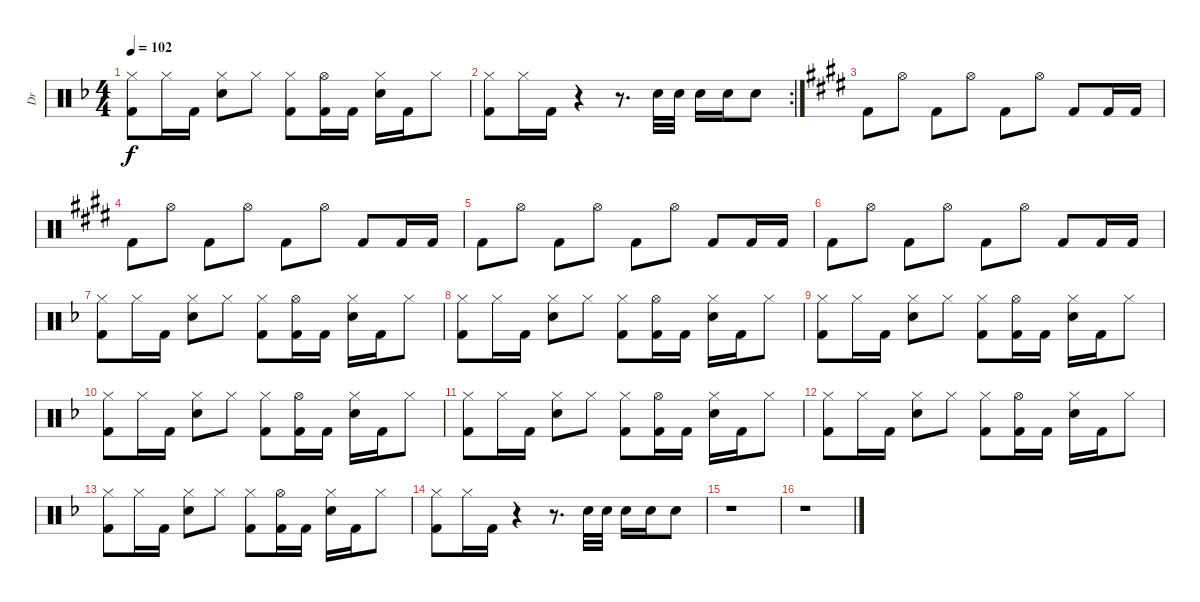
\track ("Dr" "Dr") {instrument percussion}
\staff {score}
\articulation defaults
\ts (4 4)
\tempo 102
\clef neutral
\ks f
("Hi-Hat (closed)" "Kick (hit) 2").8{dy f} "Hi-Hat (closed)".16 "Kick (hit) 2".16 ("Hi-Hat (closed)" "Electric Snare (hit)").8 "Hi-Hat (closed)".8 ("Hi-Hat (closed)" "Kick (hit) 2").8 ("Hi-Hat (open)" "Kick (hit) 2").16 "Kick (hit) 2".16 ("Hi-Hat (closed)" "Electric Snare (hit)").16 "Kick (hit) 2".16 "Hi-Hat (closed)".8 |
\rc 2
("Hi-Hat (closed)" "Kick (hit) 2").8 "Hi-Hat (closed)".16 "Kick (hit) 2".16 r.4 r.8{d} "Electric Snare (hit)".32 "Electric Snare (hit)".32 "Electric Snare (hit)".16 "Electric Snare (hit)".16 "Electric Snare (hit)".8 |
\ks e "Kick (hit) 2".8 "Hi-Hat (open)".8 "Kick (hit) 2".8 "Hi-Hat (open)".8 "Kick (hit) 2".8 "Hi-Hat (open)".8 "Kick (hit) 2".8 "Kick (hit) 2".16 "Kick (hit) 2".16
|
"Kick (hit) 2".8 "Hi-Hat (open)".8 "Kick (hit) 2".8 "Hi-Hat (open)".8 "Kick (hit) 2".8 "Hi-Hat (open)".8 "Kick (hit) 2".8 "Kick (hit) 2".16 "Kick (hit) 2".16 |
"Kick (hit) 2".8 "Hi-Hat (open)".8 "Kick (hit) 2".8 "Hi-Hat (open)".8 "Kick (hit) 2".8 "Hi-Hat (open)".8 "Kick (hit) 2".8 "Kick (hit) 2".16 "Kick (hit) 2".16 |
"Kick (hit) 2".8 "Hi-Hat (open)".8 "Kick (hit) 2".8 "Hi-Hat (open)".8 "Kick (hit) 2".8 "Hi-Hat (open)".8 "Kick (hit) 2".8 "Kick (hit) 2".16 "Kick (hit) 2".16 |
\ks f
("Hi-Hat (closed)" "Kick (hit) 2").8 "Hi-Hat (closed)".16 "Kick (hit) 2".16 ("Hi-Hat (closed)" "Electric Snare (hit)").8 "Hi-Hat (closed)".8 ("Hi-Hat (closed)" "Kick (hit) 2").8 ("Hi-Hat (open)" "Kick (hit) 2").16 "Kick (hit) 2".16 ("Hi-Hat (closed)" "Electric Snare (hit)").16 "Kick (hit) 2".16 "Hi-Hat (closed)".8 |
("Hi-Hat (closed)" "Kick (hit) 2").8 "Hi-Hat (closed)".16 "Kick (hit) 2".16 ("Hi-Hat (closed)" "Electric Snare (hit)").8 "Hi-Hat (closed)".8 ("Hi-Hat (closed)" "Kick (hit) 2").8 ("Hi-Hat (open)" "Kick (hit) 2").16 "Kick (hit) 2".16 ("Hi-Hat (closed)" "Electric Snare (hit)").16 "Kick (hit) 2".16 "Hi-Hat (closed)".8 |
("Hi-Hat (closed)" "Kick (hit) 2").8 "Hi-Hat (closed)".16 "Kick (hit) 2".16 ("Hi-Hat (closed)" "Electric Snare (hit)").8 "Hi-Hat (closed)".8 ("Hi-Hat (closed)" "Kick (hit) 2").8 ("Hi-Hat (open)" "Kick (hit) 2").16 "Kick (hit) 2".16 ("Hi-Hat (closed)" "Electric Snare (hit)").16 "Kick (hit) 2".16 "Hi-Hat (closed)".8 |
("Hi-Hat (closed)" "Kick (hit) 2").8 "Hi-Hat (closed)".16 "Kick (hit) 2".16 ("Hi-Hat (closed)" "Electric Snare (hit)").8 "Hi-Hat (closed)".8 ("Hi-Hat (closed)" "Kick (hit) 2").8 ("Hi-Hat (open)" "Kick (hit) 2").16 "Kick (hit) 2".16 ("Hi-Hat (closed)" "Electric Snare (hit)").16 "Kick (hit) 2".16 "Hi-Hat (closed)".8 |
("Hi-Hat (closed)" "Kick (hit) 2").8 "Hi-Hat (closed)".16 "Kick (hit) 2".16 ("Hi-Hat (closed)" "Electric Snare (hit)").8 "Hi-Hat (closed)".8 ("Hi-Hat (closed)" "Kick (hit) 2").8 ("Hi-Hat (open)" "Kick (hit) 2").16 "Kick (hit) 2".16 ("Hi-Hat (closed)" "Electric Snare (hit)").16 "Kick (hit) 2".16 "Hi-Hat (closed)".8 |
("Hi-Hat (closed)" "Kick (hit) 2").8 "Hi-Hat (closed)".16 "Kick (hit) 2".16 ("Hi-Hat (closed)" "Electric Snare (hit)").8 "Hi-Hat (closed)".8 ("Hi-Hat (closed)" "Kick (hit) 2").8 ("Hi-Hat (open)" "Kick (hit) 2").16 "Kick (hit) 2".16 ("Hi-Hat (closed)" "Electric Snare (hit)").16 "Kick (hit) 2".16 "Hi-Hat (closed)".8 |
("Hi-Hat (closed)" "Kick (hit) 2").8 "Hi-Hat (closed)".16 "Kick (hit) 2".16 ("Hi-Hat (closed)" "Electric Snare (hit)").8 "Hi-Hat (closed)".8 ("Hi-Hat (closed)" "Kick (hit) 2").8 ("Hi-Hat (open)" "Kick (hit) 2").16 "Kick (hit) 2".16 ("Hi-Hat (closed)" "Electric Snare (hit)").16 "Kick (hit) 2".16 "Hi-Hat (closed)".8 |
("Hi-Hat (closed)" "Kick (hit) 2").8 "Hi-Hat (closed)".16 "Kick (hit) 2".16 r.4 r.8{d} "Electric Snare (hit)".32 "Electric Snare (hit)".32 "Electric Snare (hit)".16 "Electric Snare (hit)".16 "Electric Snare (hit)".8 |
r.1 |
r.1
